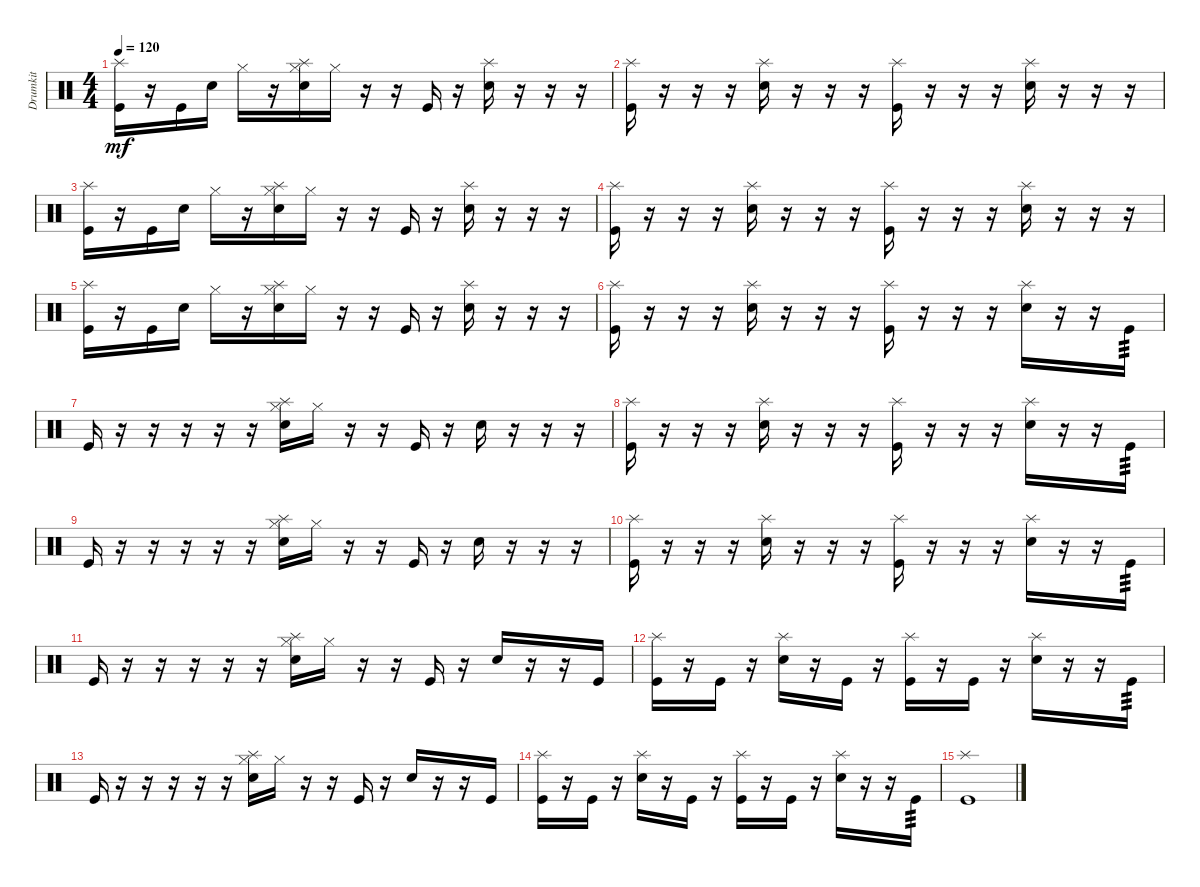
\track ("Drumkit" "Drumkit") {instrument percussion}
\staff {score}
\articulation defaults
\ts (4 4)
\tempo 120
\clef neutral
\ks c
("Kick (hit)" "Splash (hit)").16{dy mf} r.16 "Kick (hit)".16 "Snare (hit) 2".16 "Hi-Hat (closed)".16 r.16 ("Hi-Hat (closed)" "Snare (hit) 2" "Splash (hit)").16 "Hi-Hat (closed)".16 r.16 r.16 "Kick (hit)".16 r.16 ("Snare (hit) 2" "Splash (hit)").16 r.16 r.16 r.16 |
("Kick (hit)" "Splash (hit)").16 r.16 r.16 r.16 ("Snare (hit) 2" "Splash (hit)").16 r.16 r.16 r.16 ("Kick (hit)" "Splash (hit)").16 r.16 r.16 r.16 ("Splash (hit)" "Snare (hit) 2").16 r.16 r.16 r.16 |
("Kick (hit)" "Splash (hit)").16 r.16 "Kick (hit)".16 "Snare (hit) 2".16 "Hi-Hat (closed)".16 r.16 ("Hi-Hat (closed)" "Snare (hit) 2" "Splash (hit)").16 "Hi-Hat (closed)".16 r.16 r.16 "Kick (hit)".16 r.16 ("Snare (hit) 2" "Splash (hit)").16 r.16 r.16 r.16 |
("Kick (hit)" "Splash (hit)").16 r.16 r.16 r.16 ("Snare (hit) 2" "Splash (hit)").16 r.16 r.16 r.16 ("Kick (hit)" "Splash (hit)").16 r.16 r.16 r.16 ("Splash (hit)" "Snare (hit) 2").16 r.16 r.16 r.16 |
("Kick (hit)" "Splash (hit)").16 r.16 "Kick (hit)".16 "Snare (hit) 2".16 "Hi-Hat (closed)".16 r.16 ("Hi-Hat (closed)" "Snare (hit) 2" "Splash (hit)").16 "Hi-Hat (closed)".16 r.16 r.16 "Kick (hit)".16 r.16 ("Snare (hit) 2" "Splash (hit)").16 r.16 r.16 r.16 |
("Kick (hit)" "Splash (hit)").16 r.16 r.16 r.16 ("Snare (hit) 2" "Splash (hit)").16 r.16 r.16 r.16 ("Kick (hit)" "Splash (hit)").16 r.16 r.16 r.16 ("Splash (hit)" "Snare (hit) 2").16 r.16 r.16 "Kick (hit)".16{tp 3} |
"Kick (hit)".16 r.16 r.16 r.16 r.16 r.16 ("Hi-Hat (closed)" "Snare (hit) 2" "Splash (hit)").16 "Hi-Hat (closed)".16 r.16 r.16 "Kick (hit)".16 r.16 "Snare (hit) 2".16 r.16 r.16 r.16 |
("Kick (hit)" "Splash (hit)").16 r.16 r.16 r.16 ("Snare (hit) 2" "Splash (hit)").16 r.16 r.16 r.16 ("Kick (hit)" "Splash (hit)").16 r.16 r.16 r.16 ("Splash (hit)" "Snare (hit) 2").16 r.16 r.16 "Kick (hit)".16{tp 3} |
"Kick (hit)".16 r.16 r.16 r.16 r.16 r.16 ("Hi-Hat (closed)" "Snare (hit) 2" "Splash (hit)").16 "Hi-Hat (closed)".16 r.16 r.16 "Kick (hit)".16 r.16 "Snare (hit) 2".16 r.16 r.16 r.16 |
("Kick (hit)" "Splash (hit)").16 r.16 r.16 r.16 ("Snare (hit) 2" "Splash (hit)").16 r.16 r.16 r.16 ("Kick (hit)" "Splash (hit)").16 r.16 r.16 r.16 ("Splash (hit)" "Snare (hit) 2").16 r.16 r.16 "Kick (hit)".16{tp 3} |
"Kick (hit)".16 r.16 r.16 r.16 r.16 r.16 ("Hi-Hat (closed)" "Snare (hit) 2" "Splash (hit)").16 "Hi-Hat (closed)".16 r.16 r.16 "Kick (hit)".16 r.16 "Snare (hit) 2".16 r.16 r.16 "Kick (hit)".16 |
("Kick (hit)" "Splash (hit)").16 r.16 "Kick (hit)".16 r.16 ("Snare (hit) 2" "Splash (hit)").16 r.16 "Kick (hit)".16 r.16 ("Kick (hit)" "Splash (hit)").16 r.16 "Kick (hit)".16 r.16 ("Splash (hit)" "Snare (hit) 2").16 r.16 r.16 "Kick (hit)".16{tp 3} |
"Kick (hit)".16 r.16 r.16 r.16 r.16 r.16 ("Hi-Hat (closed)" "Snare (hit) 2" "Splash (hit)").16 "Hi-Hat (closed)".16 r.16 r.16 "Kick (hit)".16 r.16 "Snare (hit) 2".16 r.16 r.16 "Kick (hit)".16 |
("Kick (hit)" "Splash (hit)").16 r.16 "Kick (hit)".16 r.16 ("Snare (hit) 2" "Splash (hit)").16 r.16 "Kick (hit)".16 r.16 ("Kick (hit)" "Splash (hit)").16 r.16 "Kick (hit)".16 r.16 ("Splash (hit)" "Snare (hit) 2").16 r.16 r.16 "Kick (hit)".16{tp 3} |
("Kick (hit)" "Splash (hit)").1
